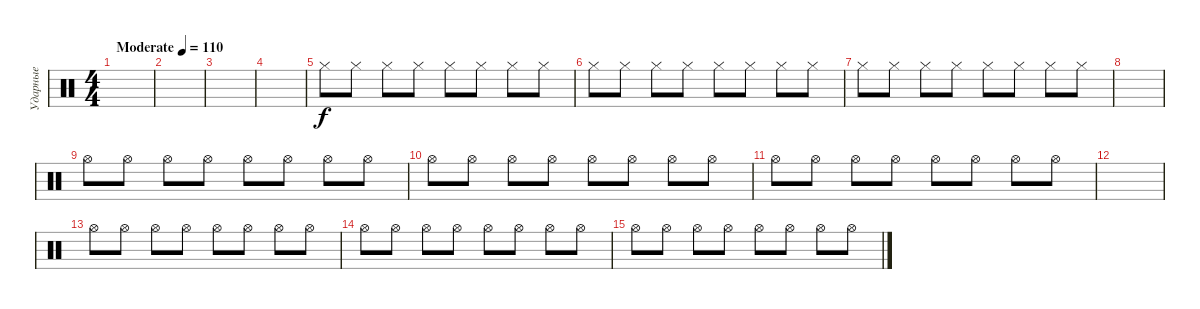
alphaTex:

\track ("Ударные" "Ударные") {instrument percussion}
\staff {score}
\articulation defaults
\ts (4 4)
\tempo (110 "Moderate")
\clef neutral
\ks c
|
|
|
|
"Hi-Hat (closed)".8 "Hi-Hat (closed)".8 "Hi-Hat (closed)".8 "Hi-Hat (closed)".8 "Hi-Hat (closed)".8 "Hi-Hat (closed)".8 "Hi-Hat (closed)".8 "Hi-Hat (closed)".8 |
"Hi-Hat (closed)".8 "Hi-Hat (closed)".8 "Hi-Hat (closed)".8 "Hi-Hat (closed)".8 "Hi-Hat (closed)".8 "Hi-Hat (closed)".8 "Hi-Hat (closed)".8 "Hi-Hat (closed)".8 |
"Hi-Hat (closed)".8 "Hi-Hat (closed)".8 "Hi-Hat (closed)".8 "Hi-Hat (closed)".8 "Hi-Hat (closed)".8 "Hi-Hat (closed)".8 "Hi-Hat (closed)".8 "Hi-Hat (closed)".8 |
|
"Hi-Hat (open)".8 "Hi-Hat (open)".8 "Hi-Hat (open)".8 "Hi-Hat (open)".8 "Hi-Hat (open)".8 "Hi-Hat (open)".8 "Hi-Hat (open)".8 "Hi-Hat (open)".8 |
"Hi-Hat (open)".8 "Hi-Hat (open)".8 "Hi-Hat (open)".8 "Hi-Hat (open)".8 "Hi-Hat (open)".8 "Hi-Hat (open)".8 "Hi-Hat (open)".8 "Hi-Hat (open)".8 |
"Hi-Hat (open)".8 "Hi-Hat (open)".8 "Hi-Hat (open)".8 "Hi-Hat (open)".8 "Hi-Hat (open)".8 "Hi-Hat (open)".8 "Hi-Hat (open)".8 "Hi-Hat (open)".8 |
|
"Hi-Hat (open)".8 "Hi-Hat (open)".8 "Hi-Hat (open)".8 "Hi-Hat (open)".8 "Hi-Hat (open)".8 "Hi-Hat (open)".8 "Hi-Hat (open)".8 "Hi-Hat (open)".8 |
"Hi-Hat (open)".8 "Hi-Hat (open)".8 "Hi-Hat (open)".8 "Hi-Hat (open)".8 "Hi-Hat (open)".8 "Hi-Hat (open)".8 "Hi-Hat (open)".8 "Hi-Hat (open)".8 |
"Hi-Hat (open)".8 "Hi-Hat (open)".8 "Hi-Hat (open)".8 "Hi-Hat (open)".8 "Hi-Hat (open)".8 "Hi-Hat (open)".8 "Hi-Hat (open)".8 "Hi-Hat (open)".8
